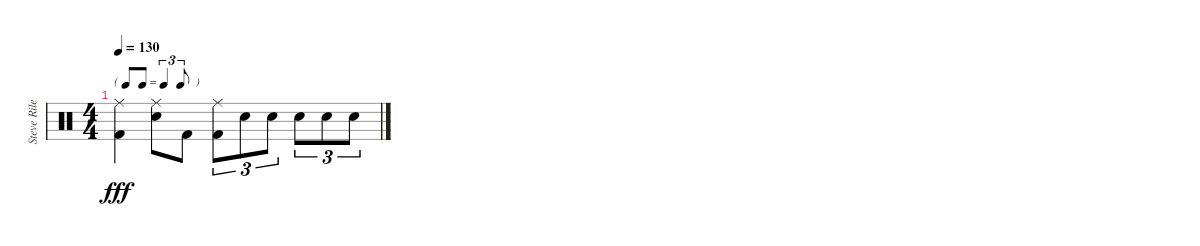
\track ("Steve Riley - Drums" "Steve Rile") {instrument percussion}
\staff {score}
\articulation defaults
\ts (4 4)
\tf triplet8th
\tempo 130
\clef neutral
\ks c
("Ride (middle)" "Kick (hit) 2").4{dy fff} ("Ride (middle)" "Electric Snare (hit)").8 "Kick (hit) 2".8 ("Ride (middle)" "Kick (hit) 2").8{tu (3 2)} "Electric Snare (hit)".8{tu (3 2)} "Electric Snare (hit)".8{tu (3 2)} "Electric Snare (hit)".8{tu (3 2)} "Electric Snare (hit)".8{tu (3 2)} "Electric Snare (hit)".8{tu (3 2)}
